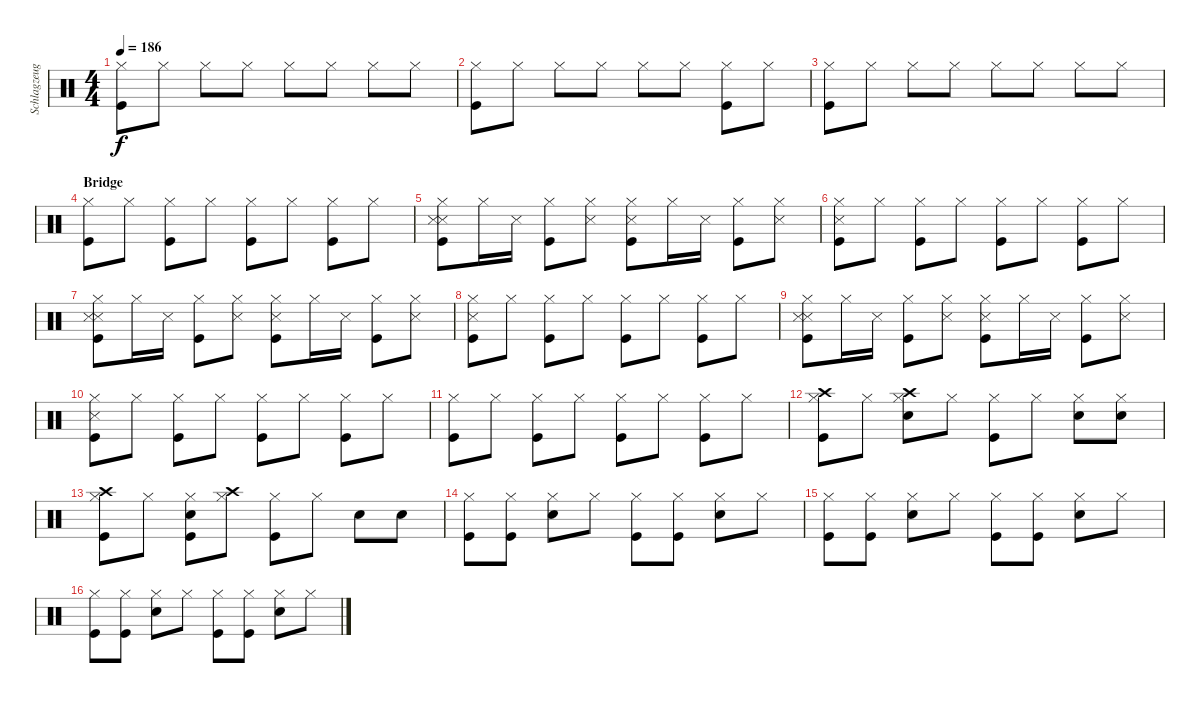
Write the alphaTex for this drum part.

\track ("Schlagzeug - Bela B." "Schlagzeug") {instrument percussion}
\staff {score}
\articulation defaults
\ts (4 4)
\tempo 186
\clef neutral
\ks c
("Kick (hit)" "Hi-Hat (closed)").8{dy f} "Hi-Hat (closed)".8 "Hi-Hat (closed)".8 "Hi-Hat (closed)".8 "Hi-Hat (closed)".8 "Hi-Hat (closed)".8 "Hi-Hat (closed)".8 "Hi-Hat (closed)".8 |
("Kick (hit)" "Hi-Hat (closed)").8 "Hi-Hat (closed)".8 "Hi-Hat (closed)".8 "Hi-Hat (closed)".8 "Hi-Hat (closed)".8 "Hi-Hat (closed)".8 ("Kick (hit)" "Hi-Hat (closed)").8 "Hi-Hat (closed)".8 |
("Hi-Hat (closed)" "Kick (hit)").8 "Hi-Hat (closed)".8 "Hi-Hat (closed)".8 "Hi-Hat (closed)".8 "Hi-Hat (closed)".8 "Hi-Hat (closed)".8 "Hi-Hat (closed)".8 "Hi-Hat (closed)".8 |
\section ("" "Bridge")
("Kick (hit)" "Hi-Hat (closed)").8 "Hi-Hat (closed)".8 ("Kick (hit)" "Hi-Hat (closed)").8 "Hi-Hat (closed)".8 ("Kick (hit)" "Hi-Hat (closed)").8 "Hi-Hat (closed)".8 ("Kick (hit)" "Hi-Hat (closed)").8 "Hi-Hat (closed)".8 |
("Kick (hit)" "Hi-Hat (closed)" "Snare (side stick) 3" "Snare (side stick) 3").8 "Hi-Hat (closed)".16 "Snare (side stick) 3".16 ("Kick (hit)" "Hi-Hat (closed)").8 ("Hi-Hat (closed)" "Snare (side stick) 3").8 ("Kick (hit)" "Hi-Hat (closed)" "Snare (side stick) 3").8 "Hi-Hat (closed)".16 "Snare (side stick) 3".16 ("Kick (hit)" "Hi-Hat (closed)").8 ("Hi-Hat (closed)" "Snare (side stick) 3").8 |
("Kick (hit)" "Hi-Hat (closed)" "Snare (side stick) 3").8 "Hi-Hat (closed)".8 ("Kick (hit)" "Hi-Hat (closed)").8 "Hi-Hat (closed)".8 ("Kick (hit)" "Hi-Hat (closed)").8 "Hi-Hat (closed)".8 ("Kick (hit)" "Hi-Hat (closed)").8 "Hi-Hat (closed)".8 |
("Kick (hit)" "Hi-Hat (closed)" "Snare (side stick) 3" "Snare (side stick) 3").8 "Hi-Hat (closed)".16 "Snare (side stick) 3".16 ("Kick (hit)" "Hi-Hat (closed)").8 ("Hi-Hat (closed)" "Snare (side stick) 3").8 ("Kick (hit)" "Hi-Hat (closed)" "Snare (side stick) 3").8 "Hi-Hat (closed)".16 "Snare (side stick) 3".16 ("Kick (hit)" "Hi-Hat (closed)").8 ("Hi-Hat (closed)" "Snare (side stick) 3").8 |
("Kick (hit)" "Hi-Hat (closed)" "Snare (side stick) 3").8 "Hi-Hat (closed)".8 ("Kick (hit)" "Hi-Hat (closed)").8 "Hi-Hat (closed)".8 ("Kick (hit)" "Hi-Hat (closed)").8 "Hi-Hat (closed)".8 ("Kick (hit)" "Hi-Hat (closed)").8 "Hi-Hat (closed)".8 |
("Kick (hit)" "Hi-Hat (closed)" "Snare (side stick) 3" "Snare (side stick) 3").8 "Hi-Hat (closed)".16 "Snare (side stick) 3".16 ("Kick (hit)" "Hi-Hat (closed)").8 ("Hi-Hat (closed)" "Snare (side stick) 3").8 ("Kick (hit)" "Hi-Hat (closed)" "Snare (side stick) 3").8 "Hi-Hat (closed)".16 "Snare (side stick) 3".16 ("Kick (hit)" "Hi-Hat (closed)").8 ("Hi-Hat (closed)" "Snare (side stick) 3").8 |
("Kick (hit)" "Hi-Hat (closed)" "Snare (side stick) 3").8 "Hi-Hat (closed)".8 ("Kick (hit)" "Hi-Hat (closed)").8 "Hi-Hat (closed)".8 ("Kick (hit)" "Hi-Hat (closed)").8 "Hi-Hat (closed)".8 ("Kick (hit)" "Hi-Hat (closed)").8 "Hi-Hat (closed)".8 |
("Kick (hit)" "Hi-Hat (closed)").8 "Hi-Hat (closed)".8 ("Kick (hit)" "Hi-Hat (closed)").8 "Hi-Hat (closed)".8 ("Kick (hit)" "Hi-Hat (closed)").8 "Hi-Hat (closed)".8 ("Kick (hit)" "Hi-Hat (closed)").8 "Hi-Hat (closed)".8 |
("Hi-Hat (closed)" "Crash high (hit)" "Kick (hit)").8 "Hi-Hat (closed)".8 ("Hi-Hat (closed)" "Crash high (hit)" "Electric Snare (hit)").8 "Hi-Hat (closed)".8 ("Hi-Hat (closed)" "Kick (hit)").8 "Hi-Hat (closed)".8 ("Hi-Hat (closed)" "Electric Snare (hit)").8 ("Hi-Hat (closed)" "Electric Snare (hit)").8 |
("Hi-Hat (closed)" "Crash high (hit)" "Kick (hit)").8 "Hi-Hat (closed)".8 ("Hi-Hat (closed)" "Kick (hit)" "Electric Snare (hit)").8 ("Crash high (hit)" "Hi-Hat (closed)").8 ("Kick (hit)" "Hi-Hat (closed)").8 "Hi-Hat (closed)".8 "Electric Snare (hit)".8 "Electric Snare (hit)".8 |
("Kick (hit)" "Hi-Hat (closed)").8 ("Hi-Hat (closed)" "Kick (hit)").8 ("Electric Snare (hit)" "Hi-Hat (closed)").8 "Hi-Hat (closed)".8 ("Hi-Hat (closed)" "Kick (hit)").8 ("Kick (hit)" "Hi-Hat (closed)").8 ("Electric Snare (hit)" "Hi-Hat (closed)").8 "Hi-Hat (closed)".8 |
("Hi-Hat (closed)" "Kick (hit)").8 ("Hi-Hat (closed)" "Kick (hit)").8 ("Hi-Hat (closed)" "Electric Snare (hit)").8 "Hi-Hat (closed)".8 ("Hi-Hat (closed)" "Kick (hit)").8 ("Kick (hit)" "Hi-Hat (closed)").8 ("Hi-Hat (closed)" "Electric Snare (hit)").8 "Hi-Hat (closed)".8 |
("Hi-Hat (closed)" "Kick (hit)").8 ("Kick (hit)" "Hi-Hat (closed)").8 ("Electric Snare (hit)" "Hi-Hat (closed)").8 "Hi-Hat (closed)".8 ("Kick (hit)" "Hi-Hat (closed)").8 ("Kick (hit)" "Hi-Hat (closed)").8 ("Electric Snare (hit)" "Hi-Hat (closed)").8 "Hi-Hat (closed)".8
